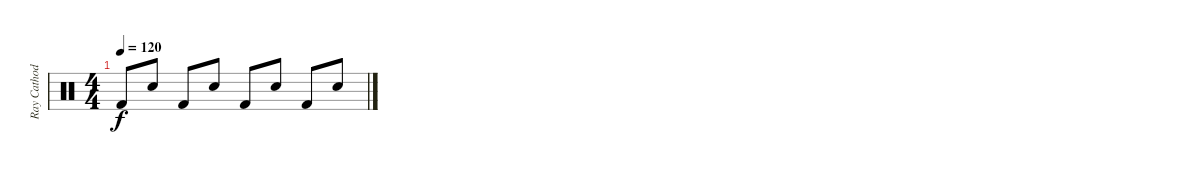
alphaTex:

\track ("Ray Cathode" "Ray Cathod") {instrument percussion}
\staff {score}
\articulation defaults
\ts (4 4)
\tempo 120
\clef neutral
\ks c "Kick (hit) 2".8{dy f} "Snare (hit) 2".8 "Kick (hit) 2".8 "Snare (hit) 2".8 "Kick (hit) 2".8 "Snare (hit) 2".8 "Kick (hit) 2".8 "Snare (hit) 2".8
